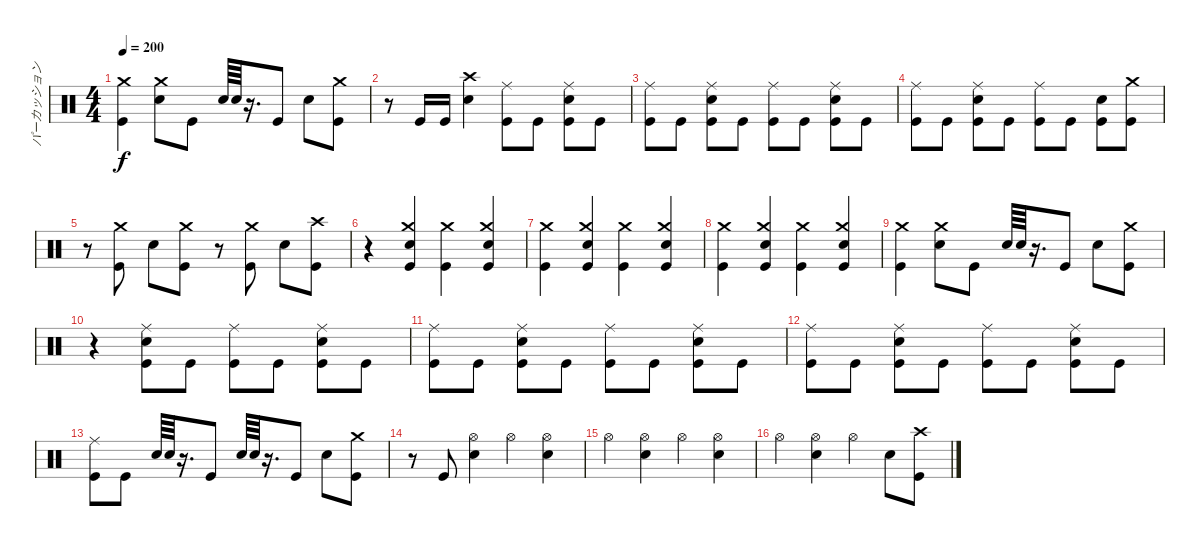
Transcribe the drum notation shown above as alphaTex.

\track ("パーカッション" "パーカッション") {instrument percussion}
\staff {score}
\articulation defaults
\ts (4 4)
\tempo 200
\clef neutral
\ks c
("Kick (hit)" "Crash medium (hit)").4{dy f} ("Crash medium (hit)" "Snare (hit) 2").8 "Kick (hit)".8 "Snare (hit) 2".64 "Snare (hit) 2".64 r.16{d} "Kick (hit)".8 "Snare (hit) 2".8 ("Crash medium (hit)" "Kick (hit)").8 |
r.8 "Kick (hit)".16 "Kick (hit)".16 ("Snare (hit) 2" "Crash high (hit)").4 ("Kick (hit)" "Ride (middle)").8 "Kick (hit)".8 ("Kick (hit)" "Ride (middle)" "Snare (hit) 2").8 "Kick (hit)".8 |
("Kick (hit)" "Ride (middle)").8 "Kick (hit)".8 ("Kick (hit)" "Ride (middle)" "Snare (hit) 2").8 "Kick (hit)".8 ("Kick (hit)" "Ride (middle)").8 "Kick (hit)".8 ("Kick (hit)" "Ride (middle)" "Snare (hit) 2").8 "Kick (hit)".8 |
("Kick (hit)" "Ride (middle)").8 "Kick (hit)".8 ("Kick (hit)" "Ride (middle)" "Snare (hit) 2").8 "Kick (hit)".8 ("Kick (hit)" "Ride (middle)").8 "Kick (hit)".8 ("Kick (hit)" "Snare (hit) 2").8 ("Kick (hit)" "Crash medium (hit)").8 |
r.8 ("Kick (hit)" "Crash medium (hit)").8 "Snare (hit) 2".8 ("Kick (hit)" "Crash medium (hit)").8 r.8 ("Kick (hit)" "Crash medium (hit)").8 "Snare (hit) 2".8 ("Kick (hit)" "Crash high (hit)").8 |
r.4 ("Crash medium (hit)" "Kick (hit)" "Snare (hit) 2").4 ("Kick (hit)" "Crash medium (hit)").4 ("Crash medium (hit)" "Kick (hit)" "Snare (hit) 2").4 |
("Kick (hit)" "Crash medium (hit)").4 ("Crash medium (hit)" "Kick (hit)" "Snare (hit) 2").4 ("Kick (hit)" "Crash medium (hit)").4 ("Crash medium (hit)" "Kick (hit)" "Snare (hit) 2").4 |
("Kick (hit)" "Crash medium (hit)").4 ("Crash medium (hit)" "Kick (hit)" "Snare (hit) 2").4 ("Kick (hit)" "Crash medium (hit)").4 ("Crash medium (hit)" "Kick (hit)" "Snare (hit) 2").4 |
("Kick (hit)" "Crash medium (hit)").4 ("Crash medium (hit)" "Snare (hit) 2").8 "Kick (hit)".8 "Snare (hit) 2".64 "Snare (hit) 2".64 r.16{d} "Kick (hit)".8 "Snare (hit) 2".8 ("Crash medium (hit)" "Kick (hit)").8 |
r.4 ("Snare (hit) 2" "Ride (middle)" "Kick (hit)").8 "Kick (hit)".8 ("Kick (hit)" "Ride (middle)").8 "Kick (hit)".8 ("Kick (hit)" "Ride (middle)" "Snare (hit) 2").8 "Kick (hit)".8 |
("Kick (hit)" "Ride (middle)").8 "Kick (hit)".8 ("Kick (hit)" "Ride (middle)" "Snare (hit) 2").8 "Kick (hit)".8 ("Kick (hit)" "Ride (middle)").8 "Kick (hit)".8 ("Kick (hit)" "Ride (middle)" "Snare (hit) 2").8 "Kick (hit)".8 |
("Kick (hit)" "Ride (middle)").8 "Kick (hit)".8 ("Kick (hit)" "Ride (middle)" "Snare (hit) 2").8 "Kick (hit)".8 ("Kick (hit)" "Ride (middle)").8 "Kick (hit)".8 ("Kick (hit)" "Ride (middle)" "Snare (hit) 2").8 "Kick (hit)".8 |
("Ride (middle)" "Kick (hit)").8 "Kick (hit)".8 "Snare (hit) 2".64 "Snare (hit) 2".64 r.16{d} "Kick (hit)".8 "Snare (hit) 2".64 "Snare (hit) 2".64 r.16{d} "Kick (hit)".8 "Snare (hit) 2".8 ("Crash medium (hit)" "Kick (hit)").8 |
r.8 "Kick (hit)".8 ("Snare (hit) 2" "Hi-Hat (open)").4 "Hi-Hat (open)".4 ("Snare (hit) 2" "Hi-Hat (open)").4 |
"Hi-Hat (open)".4 ("Snare (hit) 2" "Hi-Hat (open)").4 "Hi-Hat (open)".4 ("Snare (hit) 2" "Hi-Hat (open)").4 |
"Hi-Hat (open)".4 ("Snare (hit) 2" "Hi-Hat (open)").4 "Hi-Hat (open)".4 "Snare (hit) 2".8 ("Kick (hit)" "Crash high (hit)").8
